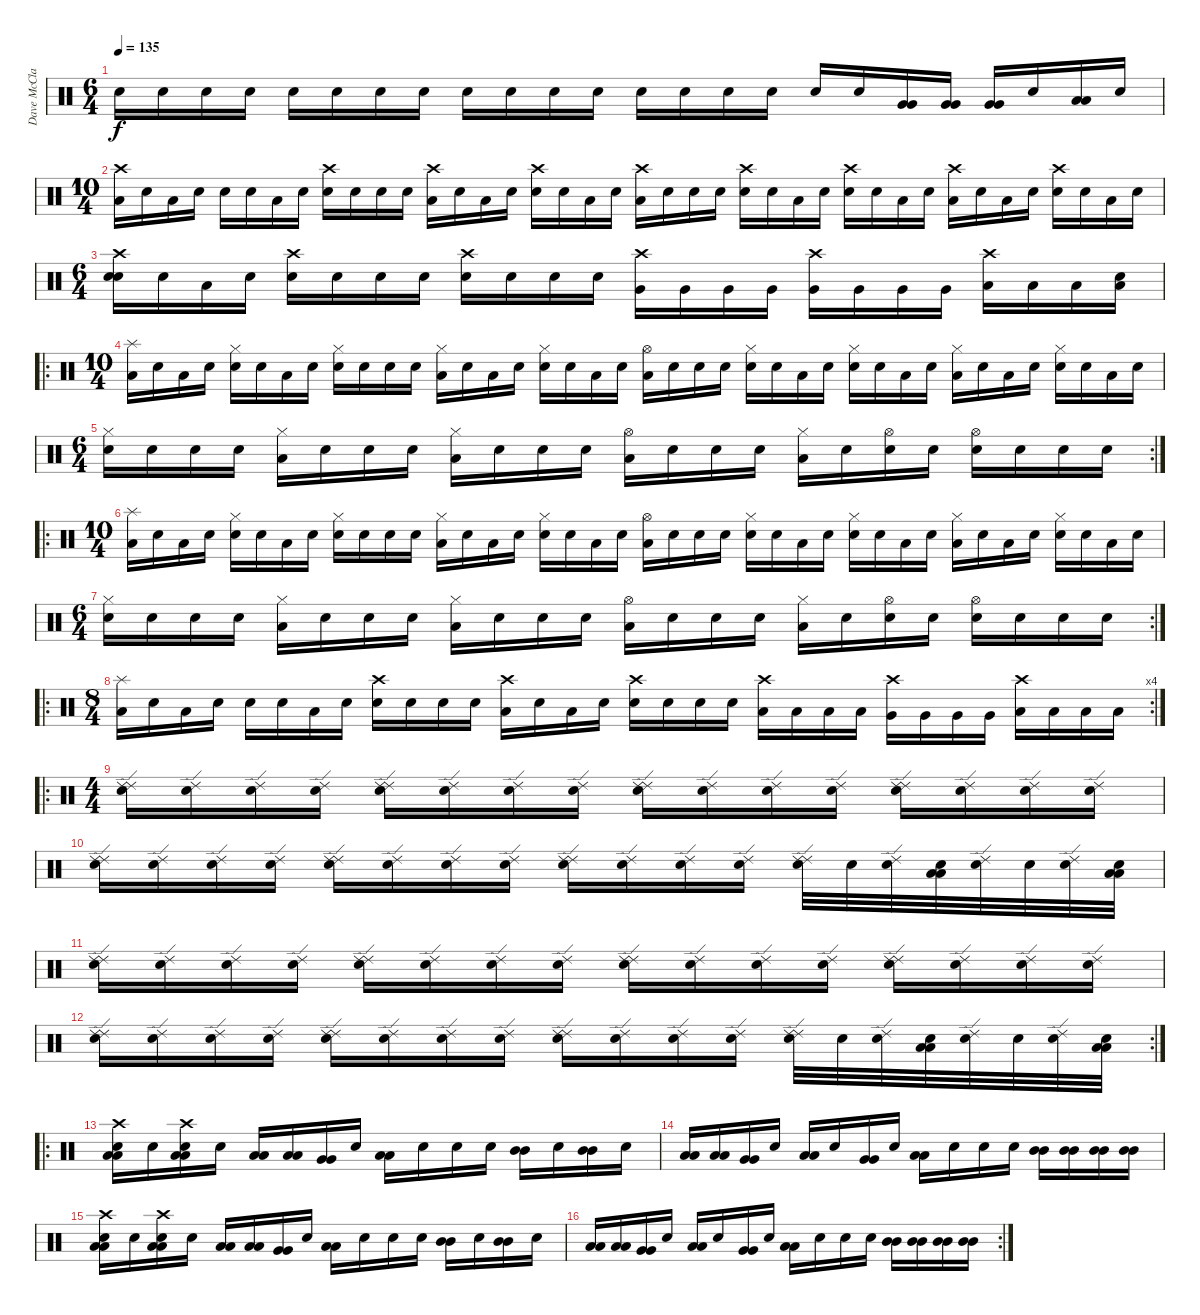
\track ("Dave McClain [Drums]" "Dave McCla") {instrument percussion}
\staff {score}
\articulation defaults
\ts (6 4)
\tempo 135
\clef neutral
\ks c "Snare (hit)".16{dy f} "Snare (hit)".16 "Snare (hit)".16 "Snare (hit)".16 "Snare (hit)".16 "Snare (hit)".16 "Snare (hit)".16 "Snare (hit)".16 "Snare (hit)".16 "Snare (hit)".16 "Snare (hit)".16 "Snare (hit)".16 "Snare (hit)".16 "Snare (hit)".16 "Snare (hit)".16 "Snare (hit)".16 "Snare (hit)".16 "Snare (hit)".16
("Very Low Tom (hit)" "Very Low Tom (hit)").16 ("Very Low Tom (hit)" "Very Low Tom (hit)").16 ("Very Low Tom (hit)" "Very Low Tom (hit)").16 "Snare (hit)".16 ("Low Floor Tom (hit)" "Low Floor Tom (hit)").16 "Snare (hit)".16 |
\ts (10 4)
("Crash high (hit)" "Low Floor Tom (hit)").16 "Snare (hit)".16 "Low Floor Tom (hit)".16 "Snare (hit)".16 "Snare (hit)".16 "Snare (hit)".16 "Low Floor Tom (hit)".16 "Snare (hit)".16 ("Crash high (hit)" "Electric Snare (hit)").16 "Snare (hit)".16 "Snare (hit)".16 "Snare (hit)".16 ("Crash high (hit)" "Low Floor Tom (hit)").16 "Snare (hit)".16 "Low Floor Tom (hit)".16 "Snare (hit)".16 ("Crash high (hit)" "Snare (hit)").16 "Snare (hit)".16 "Low Floor Tom (hit)".16 "Snare (hit)".16 ("Crash high (hit)" "Low Floor Tom (hit)").16 "Snare (hit)".16 "Snare (hit)".16 "Snare (hit)".16 ("Crash high (hit)" "Electric Snare (hit)").16 "Snare (hit)".16 "Low Floor Tom (hit)".16 "Snare (hit)".16 ("Crash high (hit)" "Snare (hit)").16 "Snare (hit)".16 "Low Floor Tom (hit)".16 "Snare (hit)".16 ("Crash high (hit)" "Low Floor Tom (hit)").16 "Snare (hit)".16 "Low Floor Tom (hit)".16 "Snare (hit)".16 ("Crash high (hit)" "Snare (hit)").16 "Snare (hit)".16 "Low Floor Tom (hit)".16 "Snare (hit)".16 |
\ts (6 4)
("Crash high (hit)" "Electric Snare (hit)" "Snare (hit)").16 "Snare (hit)".16 "Low Floor Tom (hit)".16 "Snare (hit)".16 ("Crash high (hit)" "Electric Snare (hit)").16 "Electric Snare (hit)".16 "Electric Snare (hit)".16 "Electric Snare (hit)".16 ("Crash high (hit)" "Electric Snare (hit)").16 "Electric Snare (hit)".16 "Electric Snare (hit)".16 "Electric Snare (hit)".16 ("Crash high (hit)" "Very Low Tom (hit)").16 "Very Low Tom (hit)".16 "Very Low Tom (hit)".16 "Very Low Tom (hit)".16 ("Crash high (hit)" "Very Low Tom (hit)").16 "Very Low Tom (hit)".16 "Very Low Tom (hit)".16 "Very Low Tom (hit)".16 ("Crash high (hit)" "Low Floor Tom (hit)").16 "Low Floor Tom (hit)".16 "Low Floor Tom (hit)".16 ("Low Floor Tom (hit)" "Snare (hit)").16 |
\ro
\ts (10 4)
("Splash (hit)" "Low Floor Tom (hit)").16 "Snare (hit)".16 "Low Floor Tom (hit)".16 "Snare (hit)".16 ("Hi-Hat (closed)" "Snare (hit)").16 "Snare (hit)".16 "Low Floor Tom (hit)".16 "Snare (hit)".16 ("Hi-Hat (closed)" "Electric Snare (hit)").16 "Snare (hit)".16 "Snare (hit)".16 "Snare (hit)".16 ("Hi-Hat (closed)" "Low Floor Tom (hit)").16 "Snare (hit)".16 "Low Floor Tom (hit)".16 "Snare (hit)".16 ("Hi-Hat (closed)" "Snare (hit)").16 "Snare (hit)".16 "Low Floor Tom (hit)".16 "Snare (hit)".16 ("Hi-Hat (open)" "Low Floor Tom (hit)").16 "Snare (hit)".16 "Snare (hit)".16 "Snare (hit)".16 ("Hi-Hat (closed)" "Electric Snare (hit)").16 "Snare (hit)".16 "Low Floor Tom (hit)".16 "Snare (hit)".16 ("Hi-Hat (closed)" "Snare (hit)").16 "Snare (hit)".16 "Low Floor Tom (hit)".16 "Snare (hit)".16 ("Hi-Hat (closed)" "Low Floor Tom (hit)").16 "Snare (hit)".16 "Low Floor Tom (hit)".16 "Snare (hit)".16 ("Hi-Hat (closed)" "Snare (hit)").16 "Snare (hit)".16 "Low Floor Tom (hit)".16 "Snare (hit)".16 |
\rc 2
\ts (6 4)
("Hi-Hat (closed)" "Electric Snare (hit)").16 "Snare (hit)".16 "Snare (hit)".16 "Snare (hit)".16 ("Hi-Hat (closed)" "Low Floor Tom (hit)").16 "Snare (hit)".16 "Snare (hit)".16 "Snare (hit)".16 ("Hi-Hat (closed)" "Low Floor Tom (hit)").16 "Snare (hit)".16 "Snare (hit)".16 "Snare (hit)".16 ("Hi-Hat (open)" "Low Floor Tom (hit)").16 "Snare (hit)".16 "Electric Snare (hit)".16 "Snare (hit)".16 ("Hi-Hat (closed)" "Low Floor Tom (hit)").16 "Snare (hit)".16 ("Hi-Hat (open)" "Electric Snare (hit)").16 "Snare (hit)".16 ("Hi-Hat (open)" "Electric Snare (hit)").16 "Snare (hit)".16 "Electric Snare (hit)".16 "Snare (hit)".16 |
\ro
\ts (10 4)
("Splash (hit)" "Low Floor Tom (hit)").16 "Snare (hit)".16 "Low Floor Tom (hit)".16 "Snare (hit)".16 ("Hi-Hat (closed)" "Snare (hit)").16 "Snare (hit)".16 "Low Floor Tom (hit)".16 "Snare (hit)".16 ("Hi-Hat (closed)" "Electric Snare (hit)").16 "Snare (hit)".16 "Snare (hit)".16 "Snare (hit)".16 ("Hi-Hat (closed)" "Low Floor Tom (hit)").16 "Snare (hit)".16 "Low Floor Tom (hit)".16 "Snare (hit)".16 ("Hi-Hat (closed)" "Snare (hit)").16 "Snare (hit)".16 "Low Floor Tom (hit)".16 "Snare (hit)".16 ("Hi-Hat (open)" "Low Floor Tom (hit)").16 "Snare (hit)".16 "Snare (hit)".16 "Snare (hit)".16 ("Hi-Hat (closed)" "Electric Snare (hit)").16 "Snare (hit)".16 "Low Floor Tom (hit)".16 "Snare (hit)".16 ("Hi-Hat (closed)" "Snare (hit)").16 "Snare (hit)".16 "Low Floor Tom (hit)".16 "Snare (hit)".16 ("Hi-Hat (closed)" "Low Floor Tom (hit)").16 "Snare (hit)".16 "Low Floor Tom (hit)".16 "Snare (hit)".16 ("Hi-Hat (closed)" "Snare (hit)").16 "Snare (hit)".16 "Low Floor Tom (hit)".16 "Snare (hit)".16 |
\rc 2
\ts (6 4)
("Hi-Hat (closed)" "Electric Snare (hit)").16 "Snare (hit)".16 "Snare (hit)".16 "Snare (hit)".16 ("Hi-Hat (closed)" "Low Floor Tom (hit)").16 "Snare (hit)".16 "Snare (hit)".16 "Snare (hit)".16 ("Hi-Hat (closed)" "Low Floor Tom (hit)").16 "Snare (hit)".16 "Snare (hit)".16 "Snare (hit)".16 ("Hi-Hat (open)" "Low Floor Tom (hit)").16 "Snare (hit)".16 "Electric Snare (hit)".16 "Snare (hit)".16 ("Hi-Hat (closed)" "Low Floor Tom (hit)").16 "Snare (hit)".16 ("Hi-Hat (open)" "Electric Snare (hit)").16 "Snare (hit)".16 ("Hi-Hat (open)" "Electric Snare (hit)").16 "Snare (hit)".16 "Electric Snare (hit)".16 "Snare (hit)".16 |
\ro
\rc 4
\ts (8 4)
("Splash (hit)" "Low Floor Tom (hit)").16 "Snare (hit)".16 "Low Floor Tom (hit)".16 "Snare (hit)".16 "Snare (hit)".16 "Snare (hit)".16 "Low Floor Tom (hit)".16 "Snare (hit)".16 ("Crash high (hit)" "Electric Snare (hit)").16 "Snare (hit)".16 "Electric Snare (hit)".16 "Snare (hit)".16 ("Crash high (hit)" "Low Floor Tom (hit)").16 "Snare (hit)".16 "Low Floor Tom (hit)".16 "Snare (hit)".16 ("Crash high (hit)" "Snare (hit)").16 "Snare (hit)".16 "Snare (hit)".16 "Snare (hit)".16 ("Crash high (hit)" "Low Tom (hit)").16 "Low Tom (hit)".16 "Low Tom (hit)".16 "Low Tom (hit)".16 ("Crash high (hit)" "Very Low Tom (hit)").16 "Very Low Tom (hit)".16 "Very Low Tom (hit)".16 "Very Low Tom (hit)".16 ("Crash high (hit)" "Low Floor Tom (hit)").16 "Low Floor Tom (hit)".16 "Low Floor Tom (hit)".16 "Low Floor Tom (hit)".16 |
\ro
\ts (4 4)
("Ride (edge) 2" "Ride (edge) 2" "Snare (hit)").16 ("Ride (edge) 2" "Snare (hit)").16 ("Ride (edge) 2" "Snare (hit)").16 ("Ride (edge) 2" "Snare (hit)").16 ("Ride (edge) 2" "Ride (edge) 2" "Snare (hit)").16 ("Ride (edge) 2" "Snare (hit)").16 ("Ride (edge) 2" "Snare (hit)").16 ("Ride (edge) 2" "Snare (hit)").16 ("Ride (edge) 2" "Ride (edge) 2" "Snare (hit)").16 ("Ride (edge) 2" "Snare (hit)").16 ("Ride (edge) 2" "Snare (hit)").16 ("Ride (edge) 2" "Snare (hit)").16 ("Ride (edge) 2" "Ride (edge) 2" "Snare (hit)").16 ("Ride (edge) 2" "Snare (hit)").16 ("Ride (edge) 2" "Snare (hit)").16 ("Ride (edge) 2" "Snare (hit)").16 |
("Ride (edge) 2" "Ride (edge) 2" "Snare (hit)").16 ("Ride (edge) 2" "Snare (hit)").16 ("Ride (edge) 2" "Snare (hit)").16 ("Ride (edge) 2" "Snare (hit)").16 ("Ride (edge) 2" "Ride (edge) 2" "Snare (hit)").16 ("Ride (edge) 2" "Snare (hit)").16 ("Ride (edge) 2" "Snare (hit)").16 ("Ride (edge) 2" "Snare (hit)").16 ("Ride (edge) 2" "Ride (edge) 2" "Snare (hit)").16 ("Ride (edge) 2" "Snare (hit)").16 ("Ride (edge) 2" "Snare (hit)").16 ("Ride (edge) 2" "Snare (hit)").16 ("Ride (edge) 2" "Ride (edge) 2" "Snare (hit)").32 "Snare (hit)".32 ("Ride (edge) 2" "Snare (hit)").32 ("Snare (hit)" "Low Floor Tom (hit)" "Low Floor Tom (hit)").32 ("Ride (edge) 2" "Snare (hit)").32 "Snare (hit)".32 ("Ride (edge) 2" "Snare (hit)").32 ("Snare (hit)" "Low Floor Tom (hit)" "Low Floor Tom (hit)").32 |
("Ride (edge) 2" "Ride (edge) 2" "Snare (hit)").16 ("Ride (edge) 2" "Snare (hit)").16 ("Ride (edge) 2" "Snare (hit)").16 ("Ride (edge) 2" "Snare (hit)").16 ("Ride (edge) 2" "Ride (edge) 2" "Snare (hit)").16 ("Ride (edge) 2" "Snare (hit)").16 ("Ride (edge) 2" "Snare (hit)").16 ("Ride (edge) 2" "Snare (hit)").16 ("Ride (edge) 2" "Ride (edge) 2" "Snare (hit)").16 ("Ride (edge) 2" "Snare (hit)").16 ("Ride (edge) 2" "Snare (hit)").16 ("Ride (edge) 2" "Snare (hit)").16 ("Ride (edge) 2" "Ride (edge) 2" "Snare (hit)").16 ("Ride (edge) 2" "Snare (hit)").16 ("Ride (edge) 2" "Snare (hit)").16 ("Ride (edge) 2" "Snare (hit)").16 |
\rc 2
("Ride (edge) 2" "Ride (edge) 2" "Snare (hit)").16 ("Ride (edge) 2" "Snare (hit)").16 ("Ride (edge) 2" "Snare (hit)").16 ("Ride (edge) 2" "Snare (hit)").16 ("Ride (edge) 2" "Ride (edge) 2" "Snare (hit)").16 ("Ride (edge) 2" "Snare (hit)").16 ("Ride (edge) 2" "Snare (hit)").16 ("Ride (edge) 2" "Snare (hit)").16 ("Ride (edge) 2" "Ride (edge) 2" "Snare (hit)").16 ("Ride (edge) 2" "Snare (hit)").16 ("Ride (edge) 2" "Snare (hit)").16 ("Ride (edge) 2" "Snare (hit)").16 ("Ride (edge) 2" "Ride (edge) 2" "Snare (hit)").32 "Snare (hit)".32 ("Ride (edge) 2" "Snare (hit)").32 ("Snare (hit)" "Low Floor Tom (hit)" "Low Floor Tom (hit)").32 ("Ride (edge) 2" "Snare (hit)").32 "Snare (hit)".32 ("Ride (edge) 2" "Snare (hit)").32 ("Snare (hit)" "Low Floor Tom (hit)" "Low Floor Tom (hit)").32 |
\ro
("Crash high (hit)" "Snare (hit)" "Low Floor Tom (hit)" "Low Floor Tom (hit)").16 "Snare (hit)".16 ("Crash high (hit)" "Snare (hit)" "Low Floor Tom (hit)" "Low Floor Tom (hit)").16 "Snare (hit)".16 ("Low Tom (hit)" "Low Tom (hit)").16 ("Low Tom (hit)" "Low Tom (hit)").16 ("Very Low Tom (hit)" "Very Low Tom (hit)").16 "Snare (hit)".16 ("Low Floor Tom (hit)" "Low Floor Tom (hit)").16 "Snare (hit)".16 "Snare (hit)".16 "Snare (hit)".16 ("Mid Tom (hit)" "Mid Tom (hit)").16 "Snare (hit)".16 ("Mid Tom (hit)" "Mid Tom (hit)").16 "Snare (hit)".16 |
("Low Tom (hit)" "Low Tom (hit)").16 ("Low Tom (hit)" "Low Tom (hit)").16 ("Very Low Tom (hit)" "Very Low Tom (hit)").16 "Snare (hit)".16 ("Low Floor Tom (hit)" "Low Floor Tom (hit)").16 "Snare (hit)".16 ("Very Low Tom (hit)" "Very Low Tom (hit)").16 "Snare (hit)".16 ("Low Floor Tom (hit)" "Low Floor Tom (hit)").16 "Snare (hit)".16 "Snare (hit)".16 "Snare (hit)".16 ("Mid Tom (hit)" "Mid Tom (hit)").16 ("Mid Tom (hit)" "Mid Tom (hit)").16 ("Mid Tom (hit)" "Mid Tom (hit)").16 ("Mid Tom (hit)" "Mid Tom (hit)").16 |
("Crash high (hit)" "Snare (hit)" "Low Floor Tom (hit)" "Low Floor Tom (hit)").16 "Snare (hit)".16 ("Crash high (hit)" "Snare (hit)" "Low Floor Tom (hit)" "Low Floor Tom (hit)").16 "Snare (hit)".16 ("Low Tom (hit)" "Low Tom (hit)").16 ("Low Tom (hit)" "Low Tom (hit)").16 ("Very Low Tom (hit)" "Very Low Tom (hit)").16 "Snare (hit)".16 ("Low Floor Tom (hit)" "Low Floor Tom (hit)").16 "Snare (hit)".16 "Snare (hit)".16 "Snare (hit)".16 ("Mid Tom (hit)" "Mid Tom (hit)").16 "Snare (hit)".16 ("Mid Tom (hit)" "Mid Tom (hit)").16 "Snare (hit)".16 |
\rc 2
("Low Tom (hit)" "Low Tom (hit)").16 ("Low Tom (hit)" "Low Tom (hit)").16 ("Very Low Tom (hit)" "Very Low Tom (hit)").16 "Snare (hit)".16 ("Low Floor Tom (hit)" "Low Floor Tom (hit)").16 "Snare (hit)".16 ("Very Low Tom (hit)" "Very Low Tom (hit)").16 "Snare (hit)".16 ("Low Floor Tom (hit)" "Low Floor Tom (hit)").16 "Snare (hit)".16 "Snare (hit)".16 "Snare (hit)".16 ("Mid Tom (hit)" "Mid Tom (hit)").16 ("Mid Tom (hit)" "Mid Tom (hit)").16 ("Mid Tom (hit)" "Mid Tom (hit)").16 ("Mid Tom (hit)" "Mid Tom (hit)").16
